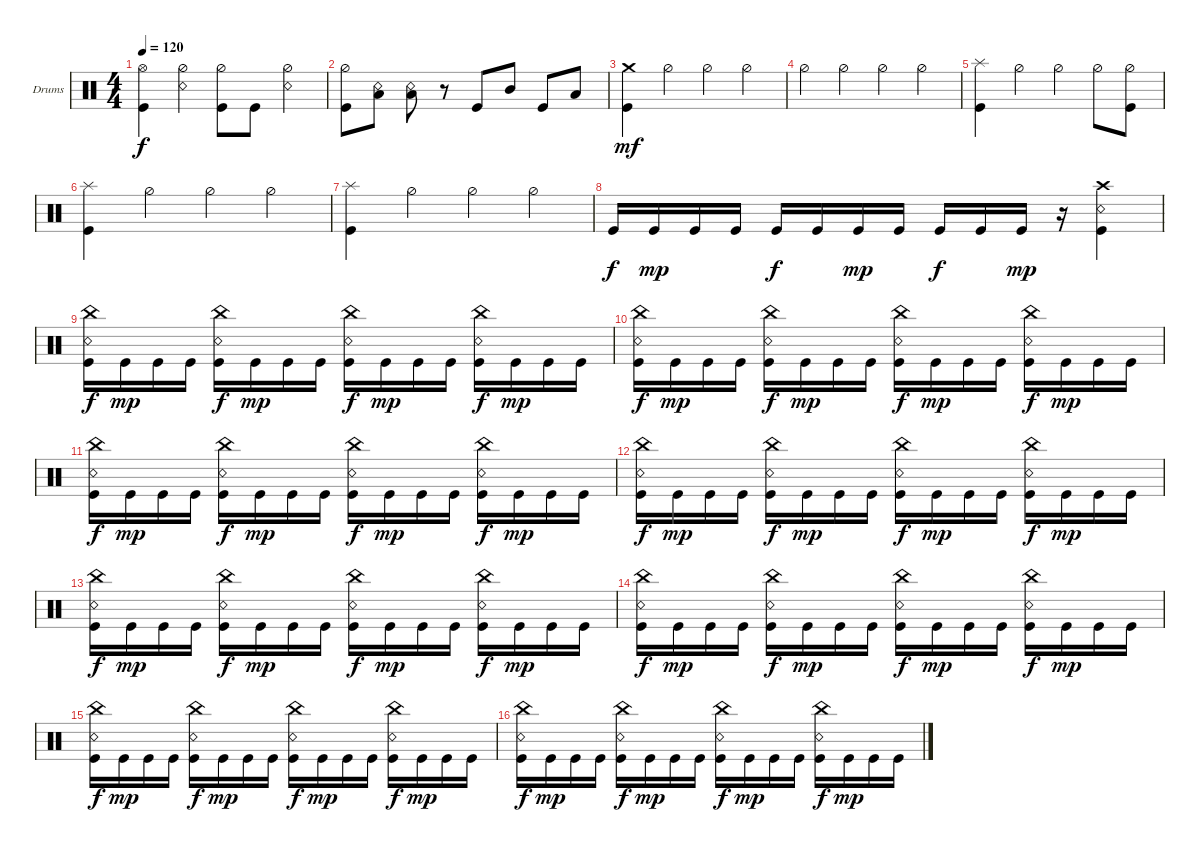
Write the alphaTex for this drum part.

\defaultSystemsLayout 4
\bracketExtendMode groupsimilarinstruments
\firstSystemTrackNameOrientation horizontal
\otherSystemsTrackNameOrientation horizontal
\track ("Drumkit" "Drums") {instrument percussion}
\staff {score}
\articulation defaults
\ts (4 4)
\tempo 120
\clef neutral
\ks c
("Kick (hit)" "Hi-Hat (open)").4{dy f} ("Snare (rim shot)" "Hi-Hat (half)").4 ("Kick (hit)" "Hi-Hat (half)").8 "Kick (hit)".8 ("Snare (rim shot)" "Hi-Hat (half)").4 |
("Kick (hit)" "Hi-Hat (half)").8 ("Snare (rim shot)" "Low Tom (hit)").8 ("Snare (rim shot)" "Low Tom (hit)").8 r.8 "Kick (hit)".8 "Mid Tom (hit)".8 "Kick (hit)".8 "Low Tom (hit)".8 |
("Kick (hit)" "Crash medium (hit)").4{dy mf} "Hi-Hat (half)".4 "Hi-Hat (half)".4 "Hi-Hat (half)".4 |
"Hi-Hat (half)".4 "Hi-Hat (half)".4 "Hi-Hat (half)".4 "Hi-Hat (half)".4 |
("Kick (hit)" "Splash (hit)").4 "Hi-Hat (half)".4 "Hi-Hat (half)".4 "Hi-Hat (half)".8 ("Kick (hit)" "Hi-Hat (half)").8 |
("Kick (hit)" "Splash (hit)").4 "Hi-Hat (half)".4 "Hi-Hat (half)".4 "Hi-Hat (half)".4 |
("Kick (hit)" "Splash (hit)").4 "Hi-Hat (half)".4 "Hi-Hat (half)".4 "Hi-Hat (half)".4 |
"Kick (hit)".16{dy f} "Kick (hit)".16{dy mp} "Kick (hit)".16 "Kick (hit)".16 "Kick (hit)".16{dy f} "Kick (hit)".16 "Kick (hit)".16{dy mp} "Kick (hit)".16 "Kick (hit)".16{dy f} "Kick (hit)".16 "Kick (hit)".16{dy mp} r.16 ("Kick (hit)" "Snare (rim shot)" "Crash high (hit)").4 |
("Kick (hit)" "Snare (rim shot)" "China (hit)").16{dy f} "Kick (hit)".16{dy mp} "Kick (hit)".16 "Kick (hit)".16 ("Kick (hit)" "Snare (rim shot)" "China (hit)").16{dy f} "Kick (hit)".16{dy mp} "Kick (hit)".16 "Kick (hit)".16 ("Kick (hit)" "Snare (rim shot)" "China (hit)").16{dy f} "Kick (hit)".16{dy mp} "Kick (hit)".16 "Kick (hit)".16 ("Kick (hit)" "Snare (rim shot)" "China (hit)").16{dy f} "Kick (hit)".16{dy mp} "Kick (hit)".16 "Kick (hit)".16 |
("Kick (hit)" "Snare (rim shot)" "China (hit)").16{dy f} "Kick (hit)".16{dy mp} "Kick (hit)".16 "Kick (hit)".16 ("Kick (hit)" "Snare (rim shot)" "China (hit)").16{dy f} "Kick (hit)".16{dy mp} "Kick (hit)".16 "Kick (hit)".16 ("Kick (hit)" "Snare (rim shot)" "China (hit)").16{dy f} "Kick (hit)".16{dy mp} "Kick (hit)".16 "Kick (hit)".16 ("Kick (hit)" "Snare (rim shot)" "China (hit)").16{dy f} "Kick (hit)".16{dy mp} "Kick (hit)".16 "Kick (hit)".16 |
("Kick (hit)" "Snare (rim shot)" "China (hit)").16{dy f} "Kick (hit)".16{dy mp} "Kick (hit)".16 "Kick (hit)".16 ("Kick (hit)" "Snare (rim shot)" "China (hit)").16{dy f} "Kick (hit)".16{dy mp} "Kick (hit)".16 "Kick (hit)".16 ("Kick (hit)" "Snare (rim shot)" "China (hit)").16{dy f} "Kick (hit)".16{dy mp} "Kick (hit)".16 "Kick (hit)".16 ("Kick (hit)" "Snare (rim shot)" "China (hit)").16{dy f} "Kick (hit)".16{dy mp} "Kick (hit)".16 "Kick (hit)".16 |
("Kick (hit)" "Snare (rim shot)" "China (hit)").16{dy f} "Kick (hit)".16{dy mp} "Kick (hit)".16 "Kick (hit)".16 ("Kick (hit)" "Snare (rim shot)" "China (hit)").16{dy f} "Kick (hit)".16{dy mp} "Kick (hit)".16 "Kick (hit)".16 ("Kick (hit)" "Snare (rim shot)" "China (hit)").16{dy f} "Kick (hit)".16{dy mp} "Kick (hit)".16 "Kick (hit)".16 ("Kick (hit)" "Snare (rim shot)" "China (hit)").16{dy f} "Kick (hit)".16{dy mp} "Kick (hit)".16 "Kick (hit)".16 |
("Kick (hit)" "Snare (rim shot)" "China (hit)").16{dy f} "Kick (hit)".16{dy mp} "Kick (hit)".16 "Kick (hit)".16 ("Kick (hit)" "Snare (rim shot)" "China (hit)").16{dy f} "Kick (hit)".16{dy mp} "Kick (hit)".16 "Kick (hit)".16 ("Kick (hit)" "Snare (rim shot)" "China (hit)").16{dy f} "Kick (hit)".16{dy mp} "Kick (hit)".16 "Kick (hit)".16 ("Kick (hit)" "Snare (rim shot)" "China (hit)").16{dy f} "Kick (hit)".16{dy mp} "Kick (hit)".16 "Kick (hit)".16 |
("Kick (hit)" "Snare (rim shot)" "China (hit)").16{dy f} "Kick (hit)".16{dy mp} "Kick (hit)".16 "Kick (hit)".16 ("Kick (hit)" "Snare (rim shot)" "China (hit)").16{dy f} "Kick (hit)".16{dy mp} "Kick (hit)".16 "Kick (hit)".16 ("Kick (hit)" "Snare (rim shot)" "China (hit)").16{dy f} "Kick (hit)".16{dy mp} "Kick (hit)".16 "Kick (hit)".16 ("Kick (hit)" "Snare (rim shot)" "China (hit)").16{dy f} "Kick (hit)".16{dy mp} "Kick (hit)".16 "Kick (hit)".16 |
("Kick (hit)" "Snare (rim shot)" "China (hit)").16{dy f} "Kick (hit)".16{dy mp} "Kick (hit)".16 "Kick (hit)".16 ("Kick (hit)" "Snare (rim shot)" "China (hit)").16{dy f} "Kick (hit)".16{dy mp} "Kick (hit)".16 "Kick (hit)".16 ("Kick (hit)" "Snare (rim shot)" "China (hit)").16{dy f} "Kick (hit)".16{dy mp} "Kick (hit)".16 "Kick (hit)".16 ("Kick (hit)" "Snare (rim shot)" "China (hit)").16{dy f} "Kick (hit)".16{dy mp} "Kick (hit)".16 "Kick (hit)".16 |
("Kick (hit)" "Snare (rim shot)" "China (hit)").16{dy f} "Kick (hit)".16{dy mp} "Kick (hit)".16 "Kick (hit)".16 ("Kick (hit)" "Snare (rim shot)" "China (hit)").16{dy f} "Kick (hit)".16{dy mp} "Kick (hit)".16 "Kick (hit)".16 ("Kick (hit)" "Snare (rim shot)" "China (hit)").16{dy f} "Kick (hit)".16{dy mp} "Kick (hit)".16 "Kick (hit)".16 ("Kick (hit)" "Snare (rim shot)" "China (hit)").16{dy f} "Kick (hit)".16{dy mp} "Kick (hit)".16 "Kick (hit)".16
